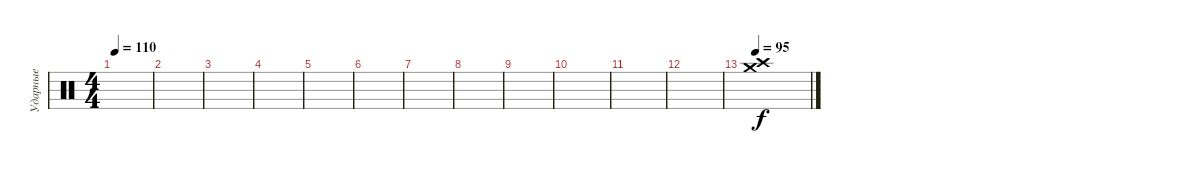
\track ("Ударные" "Ударные") {instrument percussion}
\staff {score}
\articulation defaults
\ts (4 4)
\tempo 110
\clef neutral
\ks c
|
|
|
|
|
|
|
|
|
|
|
|
\tempo 95
("Crash high (hit)" "Crash medium (hit)").1
